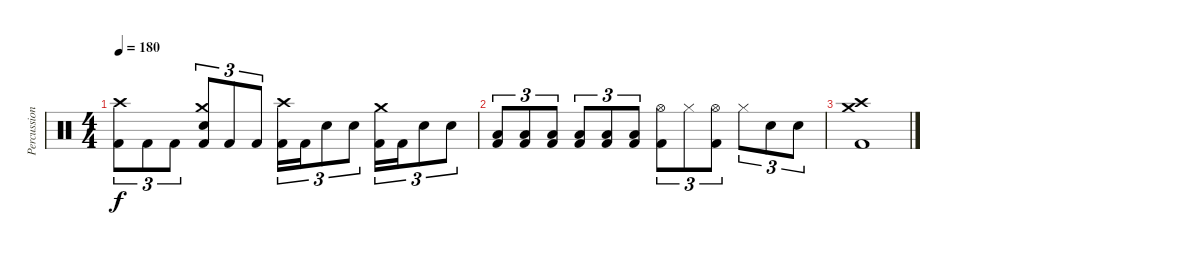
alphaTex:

\track ("Percussion" "Percussion") {instrument percussion}
\staff {score}
\articulation defaults
\ts (4 4)
\tempo 180
\clef neutral
\ks c
("Crash high (hit)" "Kick (hit) 2").8{tu (3 2) dy f} "Kick (hit) 2".8{tu (3 2)} "Kick (hit) 2".8{tu (3 2)} ("Crash medium (hit)" "Electric Snare (hit)" "Kick (hit) 2").8{tu (3 2)} "Kick (hit) 2".8{tu (3 2)} "Kick (hit) 2".8{tu (3 2)} ("Crash high (hit)" "Kick (hit) 2").16{tu (3 2)} "Kick (hit) 2".16{tu (3 2)} "Electric Snare (hit)".8{tu (3 2)} "Electric Snare (hit)".8{tu (3 2)} ("Crash medium (hit)" "Kick (hit) 2").16{tu (3 2)} "Kick (hit) 2".16{tu (3 2)} "Electric Snare (hit)".8{tu (3 2)} "Electric Snare (hit)".8{tu (3 2)} |
("Low Floor Tom (hit)" "Kick (hit) 2").8{tu (3 2)} ("Low Floor Tom (hit)" "Kick (hit) 2").8{tu (3 2)} ("Low Floor Tom (hit)" "Kick (hit) 2").8{tu (3 2)} ("Low Floor Tom (hit)" "Kick (hit) 2").8{tu (3 2)} ("Low Floor Tom (hit)" "Kick (hit) 2").8{tu (3 2)} ("Low Floor Tom (hit)" "Kick (hit) 2").8{tu (3 2)} ("Hi-Hat (open)" "Kick (hit) 2").8{tu (3 2)} "Hi-Hat (closed)".8{tu (3 2)} ("Hi-Hat (open)" "Kick (hit) 2").8{tu (3 2)} "Hi-Hat (closed)".8{tu (3 2)} "Electric Snare (hit)".8{tu (3 2)} "Electric Snare (hit)".8{tu (3 2)} |
("Crash high (hit)" "Crash medium (hit)" "Kick (hit) 2").1
